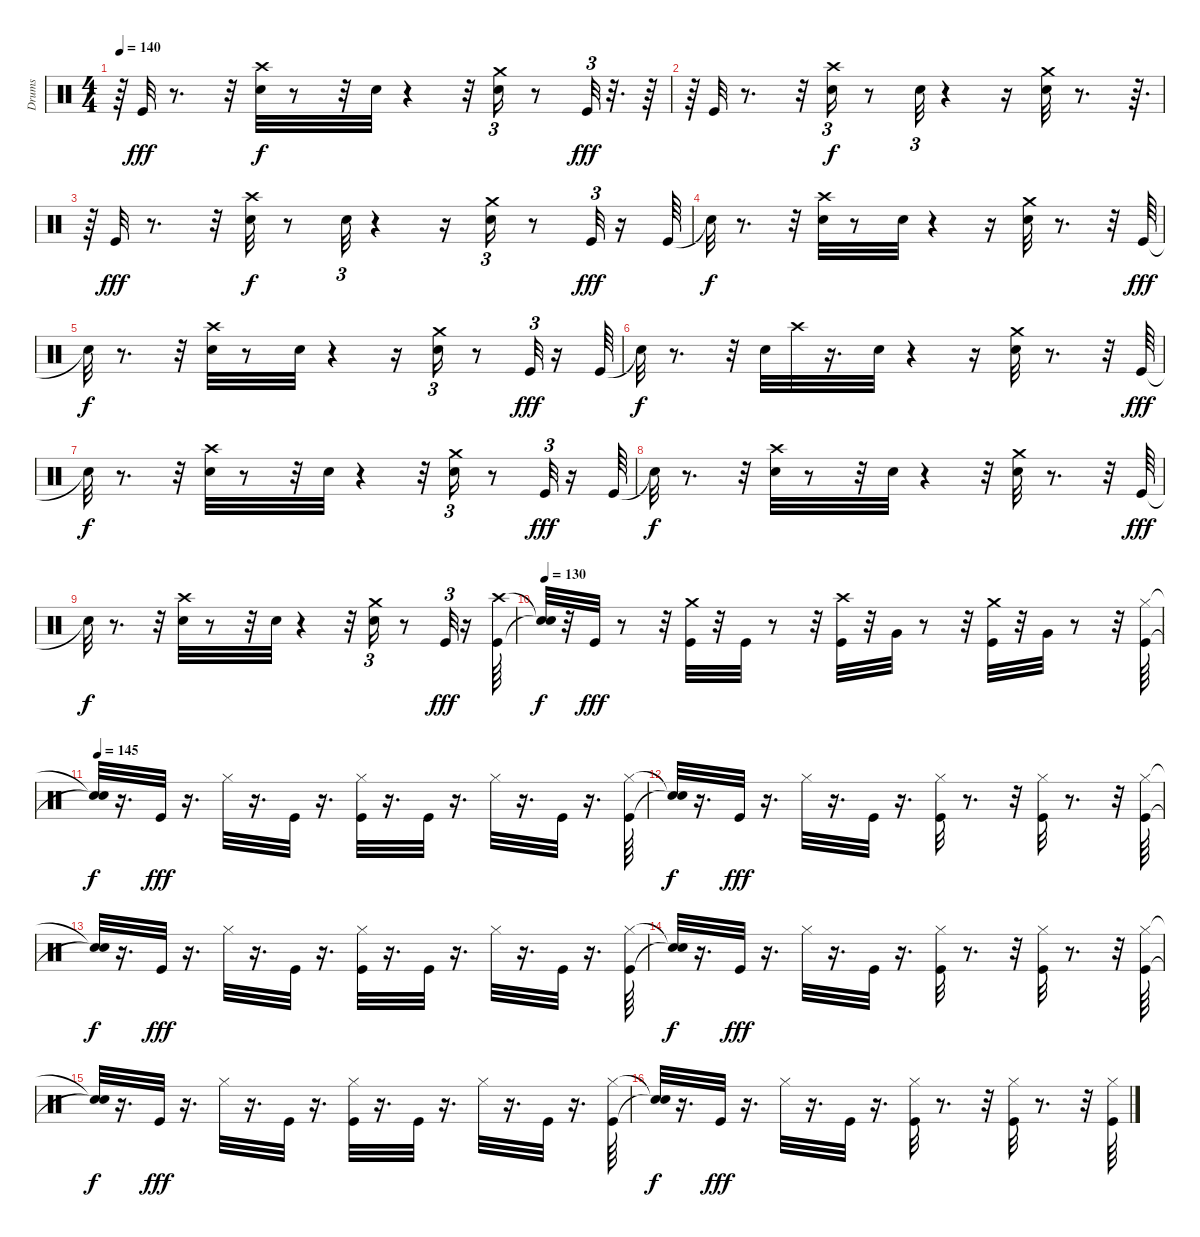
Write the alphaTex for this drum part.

\track ("Drums" "Drums") {instrument percussion}
\staff {score}
\articulation defaults
\ts (4 4)
\tempo 140
\clef neutral
\ks c
r.64{dy f} "Kick (hit)".32{dy fff} r.8{d} r.32 ("Crash high (hit)" "Electric Snare (hit)").32{dy f} r.8 r.32 "Electric Snare (hit)".32 r.4 r.32 ("Electric Snare (hit)" "Crash medium (hit)").16{tu (3 2)} r.8 "Kick (hit)".32{tu (3 2) dy fff} r.32{d} r.64 |
r.64 "Kick (hit)".32 r.8{d} r.32 ("Crash high (hit)" "Electric Snare (hit)").16{tu (3 2) dy f} r.8 "Electric Snare (hit)".32{tu (3 2)} r.4 r.16 ("Electric Snare (hit)" "Crash medium (hit)").32 r.8{d} r.64{d} |
r.64 "Kick (hit)".32{dy fff} r.8{d} r.32 ("Electric Snare (hit)" "Crash high (hit)").32{dy f} r.8 "Electric Snare (hit)".32{tu (3 2)} r.4 r.16 ("Electric Snare (hit)" "Crash medium (hit)").16{tu (3 2)} r.8 "Kick (hit)".32{tu (3 2) dy fff} r.16 "Kick (hit)".64 |
"Snare (hit)"{t}.32{dy f} r.8{d} r.32 ("Electric Snare (hit)" "Crash high (hit)").32 r.8 "Electric Snare (hit)".32 r.4 r.16 ("Electric Snare (hit)" "Crash medium (hit)").32 r.8{d} r.32 "Kick (hit)".64{dy fff} |
"Snare (hit)"{t}.32{dy f} r.8{d} r.32 ("Electric Snare (hit)" "Crash high (hit)").32 r.8 "Electric Snare (hit)".32 r.4 r.16 ("Electric Snare (hit)" "Crash medium (hit)").16{tu (3 2)} r.8 "Kick (hit)".32{tu (3 2) dy fff} r.16 "Kick (hit)".64 |
"Snare (hit)"{t}.32{dy f} r.8{d} r.32 "Electric Snare (hit)".32 "Crash high (hit)".32 r.16{d} "Electric Snare (hit)".32 r.4 r.16 ("Electric Snare (hit)" "Crash medium (hit)").32 r.8{d} r.32 "Kick (hit)".64{dy fff} |
"Snare (hit)"{t}.32{dy f} r.8{d} r.32 ("Electric Snare (hit)" "Crash high (hit)").32 r.8 r.32 "Electric Snare (hit)".32 r.4 r.32 ("Electric Snare (hit)" "Crash medium (hit)").16{tu (3 2)} r.8 "Kick (hit)".32{tu (3 2) dy fff} r.16 "Kick (hit)".64 |
"Snare (hit)"{t}.32{dy f} r.8{d} r.32 ("Crash high (hit)" "Electric Snare (hit)").32 r.8 r.32 "Electric Snare (hit)".32 r.4 r.32 ("Electric Snare (hit)" "Crash medium (hit)").32 r.8{d} r.32 "Kick (hit)".64{dy fff} |
"Snare (hit)"{t}.32{dy f} r.8{d} r.32 ("Crash high (hit)" "Electric Snare (hit)").32 r.8 r.32 "Electric Snare (hit)".32 r.4 r.32 ("Electric Snare (hit)" "Crash medium (hit)").16{tu (3 2)} r.8 "Kick (hit)".32{tu (3 2) dy fff} r.16 ("Kick (hit)" "Crash high (hit)").64 |
\tempo 130
("Snare (hit)"{t} "Snare (hit)"{t}).32{dy f} r.32 "Kick (hit)".32{dy fff} r.8 r.32 ("Kick (hit)" "Crash medium (hit)").32 r.32 "Kick (hit)".32 r.8 r.32 ("Kick (hit)" "Crash high (hit)").32 r.32 "Very Low Tom (hit)".32 r.8 r.32 ("Kick (hit)" "Crash medium (hit)").32 r.32 "Very Low Tom (hit)".32 r.8 r.32 ("Kick (hit)" "Hi-Hat (closed)").64 |
\tempo 145
("Snare (hit)"{t} "Snare (hit)"{t}).32{dy f} r.16{d} "Kick (hit)".32{dy fff} r.16{d} "Hi-Hat (closed)".32 r.16{d} "Kick (hit)".32 r.16{d} ("Kick (hit)" "Hi-Hat (closed)").32 r.16{d} "Kick (hit)".32 r.16{d} "Hi-Hat (closed)".32 r.16{d} "Kick (hit)".32 r.16{d} ("Kick (hit)" "Hi-Hat (closed)").64 |
("Snare (hit)"{t} "Snare (hit)"{t}).32{dy f} r.16{d} "Kick (hit)".32{dy fff} r.16{d} "Hi-Hat (closed)".32 r.16{d} "Kick (hit)".32 r.16{d} ("Kick (hit)" "Hi-Hat (closed)").32 r.8{d} r.32 ("Kick (hit)" "Hi-Hat (closed)").32 r.8{d} r.32 ("Kick (hit)" "Hi-Hat (closed)").64 |
("Snare (hit)"{t} "Snare (hit)"{t}).32{dy f} r.16{d} "Kick (hit)".32{dy fff} r.16{d} "Hi-Hat (closed)".32 r.16{d} "Kick (hit)".32 r.16{d} ("Kick (hit)" "Hi-Hat (closed)").32 r.16{d} "Kick (hit)".32 r.16{d} "Hi-Hat (closed)".32 r.16{d} "Kick (hit)".32 r.16{d} ("Kick (hit)" "Hi-Hat (closed)").64 |
("Snare (hit)"{t} "Snare (hit)"{t}).32{dy f} r.16{d} "Kick (hit)".32{dy fff} r.16{d} "Hi-Hat (closed)".32 r.16{d} "Kick (hit)".32 r.16{d} ("Kick (hit)" "Hi-Hat (closed)").32 r.8{d} r.32 ("Kick (hit)" "Hi-Hat (closed)").32 r.8{d} r.32 ("Kick (hit)" "Hi-Hat (closed)").64 |
("Snare (hit)"{t} "Snare (hit)"{t}).32{dy f} r.16{d} "Kick (hit)".32{dy fff} r.16{d} "Hi-Hat (closed)".32 r.16{d} "Kick (hit)".32 r.16{d} ("Kick (hit)" "Hi-Hat (closed)").32 r.16{d} "Kick (hit)".32 r.16{d} "Hi-Hat (closed)".32 r.16{d} "Kick (hit)".32 r.16{d} ("Kick (hit)" "Hi-Hat (closed)").64 |
("Snare (hit)"{t} "Snare (hit)"{t}).32{dy f} r.16{d} "Kick (hit)".32{dy fff} r.16{d} "Hi-Hat (closed)".32 r.16{d} "Kick (hit)".32 r.16{d} ("Kick (hit)" "Hi-Hat (closed)").32 r.8{d} r.32 ("Kick (hit)" "Hi-Hat (closed)").32 r.8{d} r.32 ("Kick (hit)" "Hi-Hat (closed)").64
